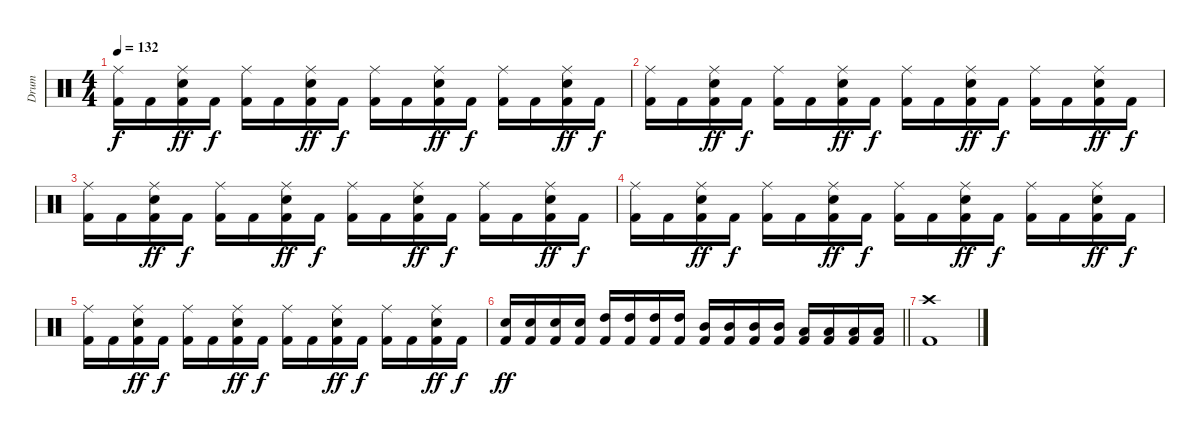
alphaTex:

\track ("Drum" "Drum") {instrument percussion}
\staff {score}
\articulation defaults
\ts (4 4)
\tempo 132
\clef neutral
\ks c
("Ride (middle)" "Kick (hit) 2").16{dy f} "Kick (hit) 2".16 ("Ride (middle)" "Electric Snare (hit)" "Kick (hit) 2").16{dy ff} "Kick (hit) 2".16{dy f} ("Ride (middle)" "Kick (hit) 2").16 "Kick (hit) 2".16 ("Ride (middle)" "Electric Snare (hit)" "Kick (hit) 2").16{dy ff} "Kick (hit) 2".16{dy f} ("Ride (middle)" "Kick (hit) 2").16 "Kick (hit) 2".16 ("Ride (middle)" "Electric Snare (hit)" "Kick (hit) 2").16{dy ff} "Kick (hit) 2".16{dy f} ("Ride (middle)" "Kick (hit) 2").16 "Kick (hit) 2".16 ("Ride (middle)" "Electric Snare (hit)" "Kick (hit) 2").16{dy ff} "Kick (hit) 2".16{dy f} |
("Ride (middle)" "Kick (hit) 2").16 "Kick (hit) 2".16 ("Ride (middle)" "Electric Snare (hit)" "Kick (hit) 2").16{dy ff} "Kick (hit) 2".16{dy f} ("Ride (middle)" "Kick (hit) 2").16 "Kick (hit) 2".16 ("Ride (middle)" "Electric Snare (hit)" "Kick (hit) 2").16{dy ff} "Kick (hit) 2".16{dy f} ("Ride (middle)" "Kick (hit) 2").16 "Kick (hit) 2".16 ("Ride (middle)" "Electric Snare (hit)" "Kick (hit) 2").16{dy ff} "Kick (hit) 2".16{dy f} ("Ride (middle)" "Kick (hit) 2").16 "Kick (hit) 2".16 ("Ride (middle)" "Electric Snare (hit)" "Kick (hit) 2").16{dy ff} "Kick (hit) 2".16{dy f} |
("Ride (middle)" "Kick (hit) 2").16 "Kick (hit) 2".16 ("Ride (middle)" "Electric Snare (hit)" "Kick (hit) 2").16{dy ff} "Kick (hit) 2".16{dy f} ("Ride (middle)" "Kick (hit) 2").16 "Kick (hit) 2".16 ("Ride (middle)" "Electric Snare (hit)" "Kick (hit) 2").16{dy ff} "Kick (hit) 2".16{dy f} ("Ride (middle)" "Kick (hit) 2").16 "Kick (hit) 2".16 ("Ride (middle)" "Electric Snare (hit)" "Kick (hit) 2").16{dy ff} "Kick (hit) 2".16{dy f} ("Ride (middle)" "Kick (hit) 2").16 "Kick (hit) 2".16 ("Ride (middle)" "Electric Snare (hit)" "Kick (hit) 2").16{dy ff} "Kick (hit) 2".16{dy f} |
("Ride (middle)" "Kick (hit) 2").16 "Kick (hit) 2".16 ("Ride (middle)" "Electric Snare (hit)" "Kick (hit) 2").16{dy ff} "Kick (hit) 2".16{dy f} ("Ride (middle)" "Kick (hit) 2").16 "Kick (hit) 2".16 ("Ride (middle)" "Electric Snare (hit)" "Kick (hit) 2").16{dy ff} "Kick (hit) 2".16{dy f} ("Ride (middle)" "Kick (hit) 2").16 "Kick (hit) 2".16 ("Ride (middle)" "Electric Snare (hit)" "Kick (hit) 2").16{dy ff} "Kick (hit) 2".16{dy f} ("Ride (middle)" "Kick (hit) 2").16 "Kick (hit) 2".16 ("Ride (middle)" "Electric Snare (hit)" "Kick (hit) 2").16{dy ff} "Kick (hit) 2".16{dy f} |
("Ride (middle)" "Kick (hit) 2").16 "Kick (hit) 2".16 ("Ride (middle)" "Electric Snare (hit)" "Kick (hit) 2").16{dy ff} "Kick (hit) 2".16{dy f} ("Ride (middle)" "Kick (hit) 2").16 "Kick (hit) 2".16 ("Ride (middle)" "Electric Snare (hit)" "Kick (hit) 2").16{dy ff} "Kick (hit) 2".16{dy f} ("Ride (middle)" "Kick (hit) 2").16 "Kick (hit) 2".16 ("Ride (middle)" "Electric Snare (hit)" "Kick (hit) 2").16{dy ff} "Kick (hit) 2".16{dy f} ("Ride (middle)" "Kick (hit) 2").16 "Kick (hit) 2".16 ("Ride (middle)" "Electric Snare (hit)" "Kick (hit) 2").16{dy ff} "Kick (hit) 2".16{dy f} |
\barLineRight lightlight
("Electric Snare (hit)" "Kick (hit) 2").16{dy ff} ("Electric Snare (hit)" "Kick (hit) 2").16 ("Electric Snare (hit)" "Kick (hit) 2").16 ("Electric Snare (hit)" "Kick (hit) 2").16 ("High Tom (hit)" "Kick (hit) 2").16 ("High Tom (hit)" "Kick (hit) 2").16 ("High Tom (hit)" "Kick (hit) 2").16 ("High Tom (hit)" "Kick (hit) 2").16 ("Mid Tom (hit)" "Kick (hit) 2").16 ("Mid Tom (hit)" "Kick (hit) 2").16 ("Mid Tom (hit)" "Kick (hit) 2").16 ("Mid Tom (hit)" "Kick (hit) 2").16 ("Low Tom (hit)" "Kick (hit) 2").16 ("Low Tom (hit)" "Kick (hit) 2").16 ("Low Tom (hit)" "Kick (hit) 2").16 ("Low Tom (hit)" "Kick (hit) 2").16 |
("Crash high (hit)" "Kick (hit) 2").1
